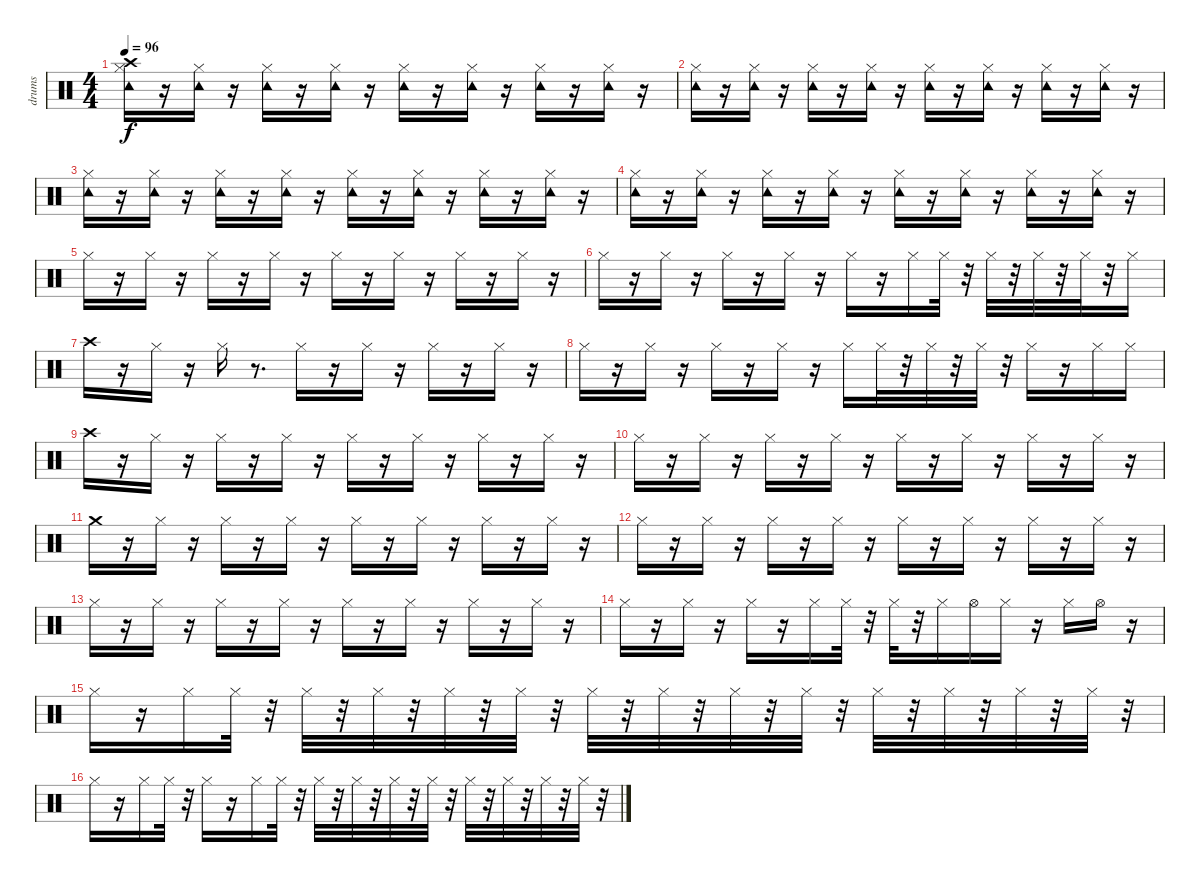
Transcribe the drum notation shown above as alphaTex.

\track ("drums" "drums") {instrument percussion}
\staff {score}
\articulation defaults
\ts (4 4)
\tempo 96
\clef neutral
\ks c
("Crash high (hit)" "Tambourine (hit)" "Hi-Hat (closed)").16{dy f} r.16 ("Hi-Hat (closed)" "Tambourine (hit)").16 r.16 ("Hi-Hat (closed)" "Tambourine (hit)").16 r.16 ("Tambourine (hit)" "Hi-Hat (closed)").16 r.16 ("Tambourine (hit)" "Hi-Hat (closed)").16 r.16 ("Tambourine (hit)" "Hi-Hat (closed)").16 r.16 ("Tambourine (hit)" "Hi-Hat (closed)").16 r.16 ("Tambourine (hit)" "Hi-Hat (closed)").16 r.16 |
("Tambourine (hit)" "Hi-Hat (closed)").16 r.16 ("Hi-Hat (closed)" "Tambourine (hit)").16 r.16 ("Tambourine (hit)" "Hi-Hat (closed)").16 r.16 ("Hi-Hat (closed)" "Tambourine (hit)").16 r.16 ("Tambourine (hit)" "Hi-Hat (closed)").16 r.16 ("Hi-Hat (closed)" "Tambourine (hit)").16 r.16 ("Hi-Hat (closed)" "Tambourine (hit)").16 r.16 ("Tambourine (hit)" "Hi-Hat (closed)").16 r.16 |
("Tambourine (hit)" "Hi-Hat (closed)").16 r.16 ("Hi-Hat (closed)" "Tambourine (hit)").16 r.16 ("Tambourine (hit)" "Hi-Hat (closed)").16 r.16 ("Tambourine (hit)" "Hi-Hat (closed)").16 r.16 ("Tambourine (hit)" "Hi-Hat (closed)").16 r.16 ("Hi-Hat (closed)" "Tambourine (hit)").16 r.16 ("Hi-Hat (closed)" "Tambourine (hit)").16 r.16 ("Hi-Hat (closed)" "Tambourine (hit)").16 r.16 |
("Tambourine (hit)" "Hi-Hat (closed)").16 r.16 ("Hi-Hat (closed)" "Tambourine (hit)").16 r.16 ("Tambourine (hit)" "Hi-Hat (closed)").16 r.16 ("Hi-Hat (closed)" "Tambourine (hit)").16 r.16 ("Hi-Hat (closed)" "Tambourine (hit)").16 r.16 ("Hi-Hat (closed)" "Tambourine (hit)").16 r.16 ("Tambourine (hit)" "Hi-Hat (closed)").16 r.16 ("Hi-Hat (closed)" "Tambourine (hit)").16 r.16 |
"Hi-Hat (closed)".16 r.16 "Hi-Hat (closed)".16 r.16 "Hi-Hat (closed)".16 r.16 "Hi-Hat (closed)".16 r.16 "Hi-Hat (closed)".16 r.16 "Hi-Hat (closed)".16 r.16 "Hi-Hat (closed)".16 r.16 "Hi-Hat (closed)".16 r.16 |
"Hi-Hat (closed)".16 r.16 "Hi-Hat (closed)".16 r.16 "Hi-Hat (closed)".16 r.16 "Hi-Hat (closed)".16 r.16 "Hi-Hat (closed)".16 r.16 "Hi-Hat (closed)".16 "Hi-Hat (closed)".32 r.32 "Hi-Hat (closed)".32 r.32 "Hi-Hat (closed)".32 r.32 "Hi-Hat (closed)".32 r.32 "Hi-Hat (closed)".16 |
"Crash high (hit)".16 r.16 "Hi-Hat (closed)".16 r.16 "Hi-Hat (closed)".16 r.8{d} "Hi-Hat (closed)".16 r.16 "Hi-Hat (closed)".16 r.16 "Hi-Hat (closed)".16 r.16 "Hi-Hat (closed)".16 r.16 |
"Hi-Hat (closed)".16 r.16 "Hi-Hat (closed)".16 r.16 "Hi-Hat (closed)".16 r.16 "Hi-Hat (closed)".16 r.16 "Hi-Hat (closed)".16 "Hi-Hat (closed)".32 r.32 "Hi-Hat (closed)".32 r.32 "Hi-Hat (closed)".32 r.32 "Hi-Hat (closed)".16 r.16 "Hi-Hat (closed)".16 "Hi-Hat (closed)".16 |
"Crash high (hit)".16 r.16 "Hi-Hat (closed)".16 r.16 "Hi-Hat (closed)".16 r.16 "Hi-Hat (closed)".16 r.16 "Hi-Hat (closed)".16 r.16 "Hi-Hat (closed)".16 r.16 "Hi-Hat (closed)".16 r.16 "Hi-Hat (closed)".16 r.16 |
"Hi-Hat (closed)".16 r.16 "Hi-Hat (closed)".16 r.16 "Hi-Hat (closed)".16 r.16 "Hi-Hat (closed)".16 r.16 "Hi-Hat (closed)".16 r.16 "Hi-Hat (closed)".16 r.16 "Hi-Hat (closed)".16 r.16 "Hi-Hat (closed)".16 r.16 |
"Crash medium (hit)".16 r.16 "Hi-Hat (closed)".16 r.16 "Hi-Hat (closed)".16 r.16 "Hi-Hat (closed)".16 r.16 "Hi-Hat (closed)".16 r.16 "Hi-Hat (closed)".16 r.16 "Hi-Hat (closed)".16 r.16 "Hi-Hat (closed)".16 r.16 |
"Hi-Hat (closed)".16 r.16 "Hi-Hat (closed)".16 r.16 "Hi-Hat (closed)".16 r.16 "Hi-Hat (closed)".16 r.16 "Hi-Hat (closed)".16 r.16 "Hi-Hat (closed)".16 r.16 "Hi-Hat (closed)".16 r.16 "Hi-Hat (closed)".16 r.16 |
"Hi-Hat (closed)".16 r.16 "Hi-Hat (closed)".16 r.16 "Hi-Hat (closed)".16 r.16 "Hi-Hat (closed)".16 r.16 "Hi-Hat (closed)".16 r.16 "Hi-Hat (closed)".16 r.16 "Hi-Hat (closed)".16 r.16 "Hi-Hat (closed)".16 r.16 |
"Hi-Hat (closed)".16 r.16 "Hi-Hat (closed)".16 r.16 "Hi-Hat (closed)".16 r.16 "Hi-Hat (closed)".16 "Hi-Hat (closed)".32 r.32 "Hi-Hat (closed)".32 r.32 "Hi-Hat (closed)".16 "Hi-Hat (open)".16 "Hi-Hat (closed)".16 r.16 "Hi-Hat (closed)".16 "Hi-Hat (open)".16 r.16 |
"Hi-Hat (closed)".16 r.16 "Hi-Hat (closed)".16 "Hi-Hat (closed)".32 r.32 "Hi-Hat (closed)".32 r.32 "Hi-Hat (closed)".32 r.32 "Hi-Hat (closed)".32 r.32 "Hi-Hat (closed)".32 r.32 "Hi-Hat (closed)".32 r.32 "Hi-Hat (closed)".32 r.32 "Hi-Hat (closed)".32 r.32 "Hi-Hat (closed)".32 r.32 "Hi-Hat (closed)".32 r.32 "Hi-Hat (closed)".32 r.32 "Hi-Hat (closed)".32 r.32 "Hi-Hat (closed)".32 r.32 |
"Hi-Hat (closed)".16 r.16 "Hi-Hat (closed)".16 "Hi-Hat (closed)".32 r.32 "Hi-Hat (closed)".16 r.16 "Hi-Hat (closed)".16 "Hi-Hat (closed)".32 r.32 "Hi-Hat (closed)".32 r.32 "Hi-Hat (closed)".32 r.32 "Hi-Hat (closed)".32 r.32 "Hi-Hat (closed)".32 r.32 "Hi-Hat (closed)".32 r.32 "Hi-Hat (closed)".32 r.32 "Hi-Hat (closed)".32 r.32 "Hi-Hat (closed)".32 r.32
